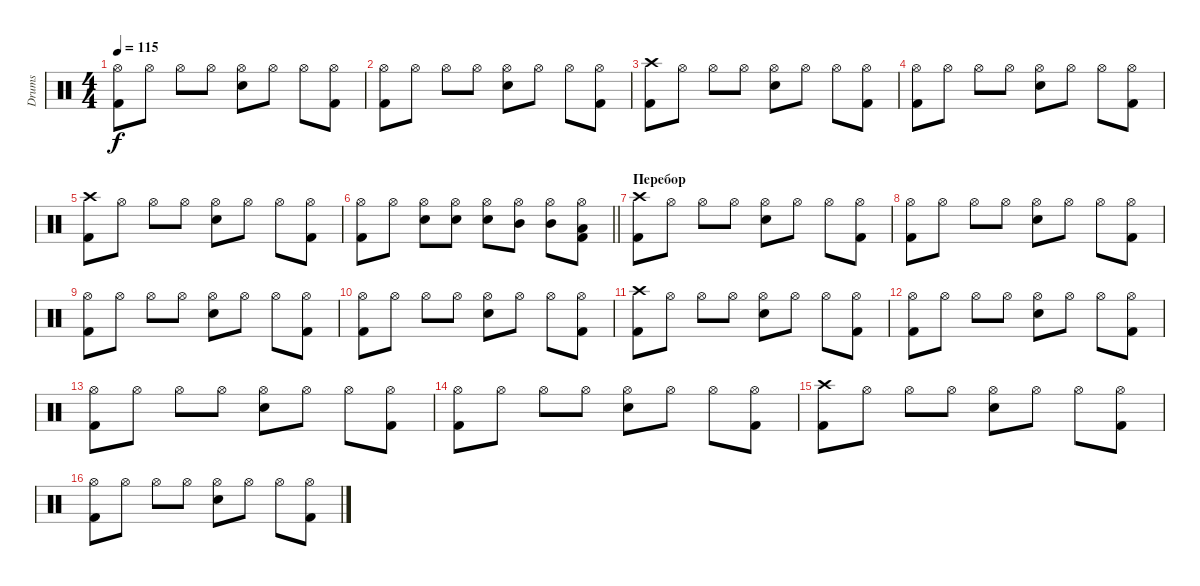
\track ("Drums" "Drums") {instrument percussion}
\staff
\articulation defaults
\ts (4 4)
\tempo 115
\clef neutral
\ks c
("Hi-Hat (open)" "Kick (hit) 2").8{dy f} "Hi-Hat (open)".8 "Hi-Hat (open)".8 "Hi-Hat (open)".8 ("Snare (hit) 2" "Hi-Hat (open)").8 "Hi-Hat (open)".8 "Hi-Hat (open)".8 ("Hi-Hat (open)" "Kick (hit) 2").8 |
("Hi-Hat (open)" "Kick (hit) 2").8 "Hi-Hat (open)".8 "Hi-Hat (open)".8 "Hi-Hat (open)".8 ("Snare (hit) 2" "Hi-Hat (open)").8 "Hi-Hat (open)".8 "Hi-Hat (open)".8 ("Hi-Hat (open)" "Kick (hit) 2").8 |
("Crash high (hit)" "Kick (hit) 2").8 "Hi-Hat (open)".8 "Hi-Hat (open)".8 "Hi-Hat (open)".8 ("Snare (hit) 2" "Hi-Hat (open)").8 "Hi-Hat (open)".8 "Hi-Hat (open)".8 ("Hi-Hat (open)" "Kick (hit) 2").8 |
("Hi-Hat (open)" "Kick (hit) 2").8 "Hi-Hat (open)".8 "Hi-Hat (open)".8 "Hi-Hat (open)".8 ("Snare (hit) 2" "Hi-Hat (open)").8 "Hi-Hat (open)".8 "Hi-Hat (open)".8 ("Hi-Hat (open)" "Kick (hit) 2").8 |
("Crash high (hit)" "Kick (hit) 2").8 "Hi-Hat (open)".8 "Hi-Hat (open)".8 "Hi-Hat (open)".8 ("Snare (hit) 2" "Hi-Hat (open)").8 "Hi-Hat (open)".8 "Hi-Hat (open)".8 ("Hi-Hat (open)" "Kick (hit) 2").8 |
\barLineRight lightlight
("Hi-Hat (open)" "Kick (hit) 2").8 "Hi-Hat (open)".8 ("Snare (hit) 2" "Hi-Hat (open)").8 ("Snare (hit) 2" "Hi-Hat (open)").8 ("Snare (hit) 2" "Hi-Hat (open)").8 ("Mid Tom (hit)" "Hi-Hat (open)").8 ("Mid Tom (hit)" "Hi-Hat (open)").8 ("Low Tom (hit)" "Hi-Hat (open)" "Kick (hit) 2").8 |
\section ("" "Перебор")
("Crash high (hit)" "Kick (hit) 2").8 "Hi-Hat (open)".8 "Hi-Hat (open)".8 "Hi-Hat (open)".8 ("Snare (hit) 2" "Hi-Hat (open)").8 "Hi-Hat (open)".8 "Hi-Hat (open)".8 ("Hi-Hat (open)" "Kick (hit) 2").8 |
("Hi-Hat (open)" "Kick (hit) 2").8 "Hi-Hat (open)".8 "Hi-Hat (open)".8 "Hi-Hat (open)".8 ("Snare (hit) 2" "Hi-Hat (open)").8 "Hi-Hat (open)".8 "Hi-Hat (open)".8 ("Hi-Hat (open)" "Kick (hit) 2").8 |
("Hi-Hat (open)" "Kick (hit) 2").8 "Hi-Hat (open)".8 "Hi-Hat (open)".8 "Hi-Hat (open)".8 ("Snare (hit) 2" "Hi-Hat (open)").8 "Hi-Hat (open)".8 "Hi-Hat (open)".8 ("Hi-Hat (open)" "Kick (hit) 2").8 |
("Hi-Hat (open)" "Kick (hit) 2").8 "Hi-Hat (open)".8 "Hi-Hat (open)".8 "Hi-Hat (open)".8 ("Snare (hit) 2" "Hi-Hat (open)").8 "Hi-Hat (open)".8 "Hi-Hat (open)".8 ("Hi-Hat (open)" "Kick (hit) 2").8 |
("Crash high (hit)" "Kick (hit) 2").8 "Hi-Hat (open)".8 "Hi-Hat (open)".8 "Hi-Hat (open)".8 ("Snare (hit) 2" "Hi-Hat (open)").8 "Hi-Hat (open)".8 "Hi-Hat (open)".8 ("Hi-Hat (open)" "Kick (hit) 2").8 |
("Hi-Hat (open)" "Kick (hit) 2").8 "Hi-Hat (open)".8 "Hi-Hat (open)".8 "Hi-Hat (open)".8 ("Snare (hit) 2" "Hi-Hat (open)").8 "Hi-Hat (open)".8 "Hi-Hat (open)".8 ("Hi-Hat (open)" "Kick (hit) 2").8 |
("Hi-Hat (open)" "Kick (hit) 2").8 "Hi-Hat (open)".8 "Hi-Hat (open)".8 "Hi-Hat (open)".8 ("Snare (hit) 2" "Hi-Hat (open)").8 "Hi-Hat (open)".8 "Hi-Hat (open)".8 ("Hi-Hat (open)" "Kick (hit) 2").8 |
("Hi-Hat (open)" "Kick (hit) 2").8 "Hi-Hat (open)".8 "Hi-Hat (open)".8 "Hi-Hat (open)".8 ("Snare (hit) 2" "Hi-Hat (open)").8 "Hi-Hat (open)".8 "Hi-Hat (open)".8 ("Hi-Hat (open)" "Kick (hit) 2").8 |
("Crash high (hit)" "Kick (hit) 2").8 "Hi-Hat (open)".8 "Hi-Hat (open)".8 "Hi-Hat (open)".8 ("Snare (hit) 2" "Hi-Hat (open)").8 "Hi-Hat (open)".8 "Hi-Hat (open)".8 ("Hi-Hat (open)" "Kick (hit) 2").8 |
("Hi-Hat (open)" "Kick (hit) 2").8 "Hi-Hat (open)".8 "Hi-Hat (open)".8 "Hi-Hat (open)".8 ("Snare (hit) 2" "Hi-Hat (open)").8 "Hi-Hat (open)".8 "Hi-Hat (open)".8 ("Hi-Hat (open)" "Kick (hit) 2").8
